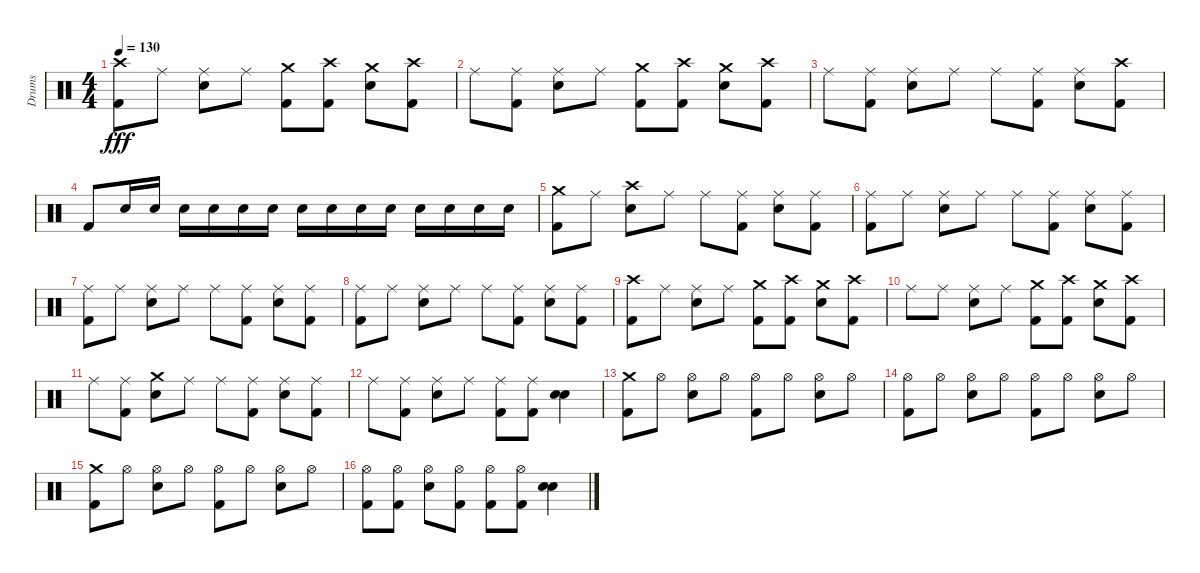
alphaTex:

\track ("Drums" "Drums") {instrument percussion}
\staff {score}
\articulation defaults
\ts (4 4)
\tempo 130
\clef neutral
\ks c
("Kick (hit) 2" "Crash high (hit)").8{dy fff} "Ride (middle)".8 ("Electric Snare (hit)" "Ride (middle)").8 "Ride (middle)".8 ("Kick (hit) 2" "Crash medium (hit)").8 ("Kick (hit) 2" "Crash high (hit)").8 ("Electric Snare (hit)" "Crash medium (hit)").8 ("Kick (hit) 2" "Crash high (hit)").8 |
"Ride (middle)".8 ("Ride (middle)" "Kick (hit) 2").8 ("Electric Snare (hit)" "Ride (middle)").8 "Ride (middle)".8 ("Crash medium (hit)" "Kick (hit) 2").8 ("Crash high (hit)" "Kick (hit) 2").8 ("Crash medium (hit)" "Electric Snare (hit)").8 ("Crash high (hit)" "Kick (hit) 2").8 |
"Ride (middle)".8 ("Ride (middle)" "Kick (hit) 2").8 ("Ride (middle)" "Electric Snare (hit)").8 "Ride (middle)".8 "Ride (middle)".8 ("Ride (middle)" "Kick (hit) 2").8 ("Electric Snare (hit)" "Ride (middle)").8 ("Kick (hit) 2" "Crash high (hit)").8 |
"Kick (hit) 2".8 "Electric Snare (hit)".16 "Electric Snare (hit)".16 "Electric Snare (hit)".16 "Electric Snare (hit)".16 "Electric Snare (hit)".16 "Electric Snare (hit)".16 "Electric Snare (hit)".16 "Electric Snare (hit)".16 "Electric Snare (hit)".16 "Electric Snare (hit)".16 "Electric Snare (hit)".16 "Electric Snare (hit)".16 "Electric Snare (hit)".16 "Electric Snare (hit)".16 |
("Crash medium (hit)" "Kick (hit) 2").8 "Ride (middle)".8 ("Crash high (hit)" "Electric Snare (hit)").8 "Ride (middle)".8 "Ride (middle)".8 ("Ride (middle)" "Kick (hit) 2").8 ("Ride (middle)" "Electric Snare (hit)").8 ("Ride (middle)" "Kick (hit) 2").8 |
("Ride (middle)" "Kick (hit) 2").8 "Ride (middle)".8 ("Ride (middle)" "Electric Snare (hit)").8 "Ride (middle)".8 "Ride (middle)".8 ("Ride (middle)" "Kick (hit) 2").8 ("Ride (middle)" "Electric Snare (hit)").8 ("Ride (middle)" "Kick (hit) 2").8 |
("Ride (middle)" "Kick (hit) 2").8 "Ride (middle)".8 ("Ride (middle)" "Electric Snare (hit)").8 "Ride (middle)".8 "Ride (middle)".8 ("Ride (middle)" "Kick (hit) 2").8 ("Ride (middle)" "Electric Snare (hit)").8 ("Ride (middle)" "Kick (hit) 2").8 |
("Kick (hit) 2" "Ride (middle)").8 "Ride (middle)".8 ("Electric Snare (hit)" "Ride (middle)").8 "Ride (middle)".8 "Ride (middle)".8 ("Ride (middle)" "Kick (hit) 2").8 ("Electric Snare (hit)" "Ride (middle)").8 ("Ride (middle)" "Kick (hit) 2").8 |
("Kick (hit) 2" "Crash high (hit)").8 "Ride (middle)".8 ("Electric Snare (hit)" "Ride (middle)").8 "Ride (middle)".8 ("Kick (hit) 2" "Crash medium (hit)").8 ("Kick (hit) 2" "Crash high (hit)").8 ("Electric Snare (hit)" "Crash medium (hit)").8 ("Kick (hit) 2" "Crash high (hit)").8 |
"Ride (middle)".8 "Ride (middle)".8 ("Ride (middle)" "Electric Snare (hit)").8 "Ride (middle)".8 ("Kick (hit) 2" "Crash medium (hit)").8 ("Kick (hit) 2" "Crash high (hit)").8 ("Electric Snare (hit)" "Crash medium (hit)").8 ("Kick (hit) 2" "Crash high (hit)").8 |
"Ride (middle)".8 ("Ride (middle)" "Kick (hit) 2").8 ("Crash medium (hit)" "Electric Snare (hit)").8 "Ride (middle)".8 "Ride (middle)".8 ("Ride (middle)" "Kick (hit) 2").8 ("Ride (middle)" "Electric Snare (hit)").8 ("Ride (middle)" "Kick (hit) 2").8 |
"Ride (middle)".8 ("Ride (middle)" "Kick (hit) 2").8 ("Ride (middle)" "Electric Snare (hit)").8 "Ride (middle)".8 ("Ride (middle)" "Kick (hit) 2").8 ("Ride (middle)" "Kick (hit) 2").8 ("Electric Snare (hit)" "Electric Snare (hit)").4 |
("Crash medium (hit)" "Kick (hit) 2").8 "Hi-Hat (open)".8 ("Hi-Hat (open)" "Electric Snare (hit)").8 "Hi-Hat (open)".8 ("Hi-Hat (open)" "Kick (hit) 2").8 "Hi-Hat (open)".8 ("Hi-Hat (open)" "Electric Snare (hit)").8 "Hi-Hat (open)".8 |
("Kick (hit) 2" "Hi-Hat (open)").8 "Hi-Hat (open)".8 ("Electric Snare (hit)" "Hi-Hat (open)").8 "Hi-Hat (open)".8 ("Kick (hit) 2" "Hi-Hat (open)").8 "Hi-Hat (open)".8 ("Electric Snare (hit)" "Hi-Hat (open)").8 "Hi-Hat (open)".8 |
("Kick (hit) 2" "Crash medium (hit)").8 "Hi-Hat (open)".8 ("Electric Snare (hit)" "Hi-Hat (open)").8 "Hi-Hat (open)".8 ("Kick (hit) 2" "Hi-Hat (open)").8 "Hi-Hat (open)".8 ("Electric Snare (hit)" "Hi-Hat (open)").8 "Hi-Hat (open)".8 |
("Hi-Hat (open)" "Kick (hit) 2").8 ("Kick (hit) 2" "Hi-Hat (open)").8 ("Hi-Hat (open)" "Electric Snare (hit)").8 ("Kick (hit) 2" "Hi-Hat (open)").8 ("Hi-Hat (open)" "Kick (hit) 2").8 ("Hi-Hat (open)" "Kick (hit) 2").8 ("Electric Snare (hit)" "Electric Snare (hit)").4
